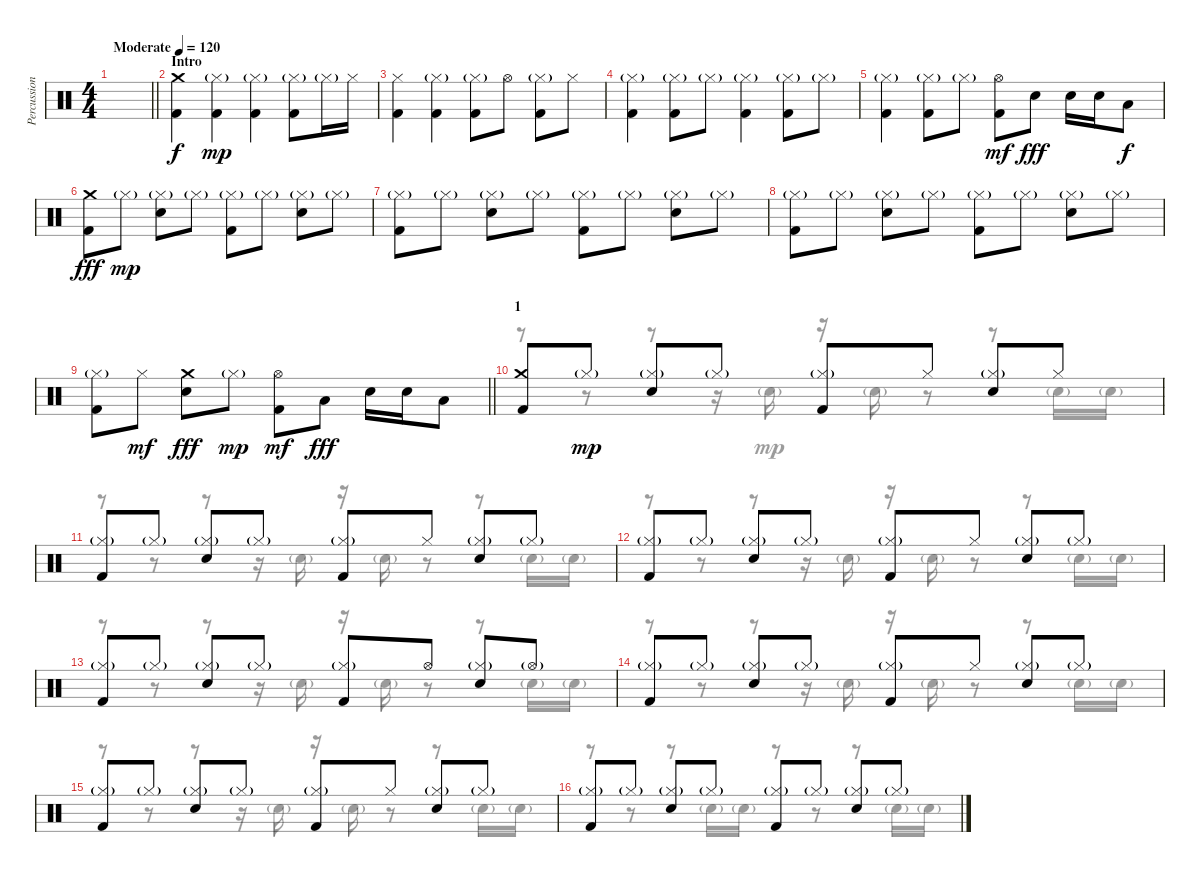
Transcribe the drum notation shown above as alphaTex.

\track ("Percussions" "Percussion") {instrument percussion}
\staff {score}
\articulation defaults
\voice
\ts (4 4)
\tempo (120 "Moderate")
\clef neutral
\barLineRight lightlight
\ks c
|
\section ("" "Intro")
("Kick (hit) 2" "Crash medium (hit)").4 ("Kick (hit) 2" "Hi-Hat (closed)"{g}).4{dy mp} ("Kick (hit) 2" "Hi-Hat (closed)"{g}).4 ("Kick (hit) 2" "Hi-Hat (closed)"{g}).8 "Hi-Hat (closed)"{g}.16 "Hi-Hat (closed)".16 |
("Kick (hit) 2" "Hi-Hat (closed)").4 ("Kick (hit) 2" "Hi-Hat (closed)"{g}).4 ("Kick (hit) 2" "Hi-Hat (closed)"{g}).8 "Hi-Hat (open)".8 ("Kick (hit) 2" "Hi-Hat (closed)"{g}).8 "Hi-Hat (closed)".8 |
("Kick (hit) 2" "Hi-Hat (closed)"{g}).4 ("Kick (hit) 2" "Hi-Hat (closed)"{g}).8 "Hi-Hat (closed)"{g}.8 ("Kick (hit) 2" "Hi-Hat (closed)"{g}).4 ("Kick (hit) 2" "Hi-Hat (closed)"{g}).8 "Hi-Hat (closed)"{g}.8 |
("Kick (hit) 2" "Hi-Hat (closed)"{g}).4 ("Kick (hit) 2" "Hi-Hat (closed)"{g}).8 "Hi-Hat (closed)"{g}.8 ("Kick (hit) 2" "Hi-Hat (open)").8{dy mf} "Electric Snare (hit)".8{dy fff} "Electric Snare (hit)".16 "Electric Snare (hit)".16 "Low Tom (hit)".8{dy f} |
("Kick (hit) 2" "Crash medium (hit)").8{dy fff} "Hi-Hat (closed)"{g}.8{dy mp} ("Electric Snare (hit)" "Hi-Hat (closed)"{g}).8 "Hi-Hat (closed)"{g}.8 ("Kick (hit) 2" "Hi-Hat (closed)"{g}).8 "Hi-Hat (closed)"{g}.8 ("Electric Snare (hit)" "Hi-Hat (closed)"{g}).8 "Hi-Hat (closed)"{g}.8 |
("Kick (hit) 2" "Hi-Hat (closed)"{g}).8 "Hi-Hat (closed)"{g}.8 ("Electric Snare (hit)" "Hi-Hat (closed)"{g}).8 "Hi-Hat (closed)"{g}.8 ("Kick (hit) 2" "Hi-Hat (closed)"{g}).8 "Hi-Hat (closed)"{g}.8 ("Electric Snare (hit)" "Hi-Hat (closed)"{g}).8 "Hi-Hat (closed)"{g}.8 |
("Kick (hit) 2" "Hi-Hat (closed)"{g}).8 "Hi-Hat (closed)"{g}.8 ("Electric Snare (hit)" "Hi-Hat (closed)"{g}).8 "Hi-Hat (closed)"{g}.8 ("Kick (hit) 2" "Hi-Hat (closed)"{g}).8 "Hi-Hat (closed)"{g}.8 ("Electric Snare (hit)" "Hi-Hat (closed)"{g}).8 "Hi-Hat (closed)"{g}.8 |
\barLineRight lightlight
("Kick (hit) 2" "Hi-Hat (closed)"{g}).8 "Hi-Hat (closed)".8{dy mf} ("Electric Snare (hit)" "Crash medium (hit)").8{dy fff} "Hi-Hat (closed)"{g}.8{dy mp} ("Kick (hit) 2" "Hi-Hat (open)").8{dy mf} "Low Tom (hit)".8{dy fff} "Electric Snare (hit)".16 "Electric Snare (hit)".16 "Low Tom (hit)".8 |
\section ("" "1")
("Kick (hit) 2" "Crash medium (hit)").8 "Hi-Hat (closed)"{g}.8{dy mp} ("Electric Snare (hit)" "Hi-Hat (closed)"{g}).8 "Hi-Hat (closed)"{g}.8 ("Kick (hit) 2" "Hi-Hat (closed)"{g}).8 "Hi-Hat (closed)".8 ("Electric Snare (hit)" "Hi-Hat (closed)"{g}).8 "Hi-Hat (closed)".8 |
("Kick (hit) 2" "Hi-Hat (closed)"{g}).8 "Hi-Hat (closed)"{g}.8 ("Electric Snare (hit)" "Hi-Hat (closed)"{g}).8 "Hi-Hat (closed)"{g}.8 ("Kick (hit) 2" "Hi-Hat (closed)"{g}).8 "Hi-Hat (closed)".8 ("Electric Snare (hit)" "Hi-Hat (closed)"{g}).8 "Hi-Hat (closed)"{g}.8 |
("Kick (hit) 2" "Hi-Hat (closed)"{g}).8 "Hi-Hat (closed)"{g}.8 ("Electric Snare (hit)" "Hi-Hat (closed)"{g}).8 "Hi-Hat (closed)"{g}.8 ("Kick (hit) 2" "Hi-Hat (closed)"{g}).8 "Hi-Hat (closed)".8 ("Electric Snare (hit)" "Hi-Hat (closed)"{g}).8 "Hi-Hat (closed)"{g}.8 |
("Kick (hit) 2" "Hi-Hat (closed)"{g}).8 "Hi-Hat (closed)"{g}.8 ("Electric Snare (hit)" "Hi-Hat (closed)"{g}).8 "Hi-Hat (closed)"{g}.8 ("Kick (hit) 2" "Hi-Hat (closed)"{g}).8 "Hi-Hat (open)".8 ("Electric Snare (hit)" "Hi-Hat (closed)"{g}).8 "Hi-Hat (open)"{g}.8 |
("Kick (hit) 2" "Hi-Hat (closed)"{g}).8 "Hi-Hat (closed)"{g}.8 ("Electric Snare (hit)" "Hi-Hat (closed)"{g}).8 "Hi-Hat (closed)"{g}.8 ("Kick (hit) 2" "Hi-Hat (closed)"{g}).8 "Hi-Hat (closed)".8 ("Electric Snare (hit)" "Hi-Hat (closed)"{g}).8 "Hi-Hat (closed)"{g}.8 |
("Kick (hit) 2" "Hi-Hat (closed)"{g}).8 "Hi-Hat (closed)"{g}.8 ("Electric Snare (hit)" "Hi-Hat (closed)"{g}).8 "Hi-Hat (closed)"{g}.8 ("Kick (hit) 2" "Hi-Hat (closed)"{g}).8 "Hi-Hat (closed)".8 ("Electric Snare (hit)" "Hi-Hat (closed)"{g}).8 "Hi-Hat (closed)"{g}.8 |
("Kick (hit) 2" "Hi-Hat (closed)"{g}).8 "Hi-Hat (closed)"{g}.8 ("Electric Snare (hit)" "Hi-Hat (closed)"{g}).8 "Hi-Hat (closed)"{g}.8 ("Kick (hit) 2" "Hi-Hat (closed)"{g}).8 "Hi-Hat (closed)"{g}.8 ("Electric Snare (hit)" "Hi-Hat (closed)"{g}).8 "Hi-Hat (closed)"{g}.8
\voice
\clef neutral
\ottava regular
\simile none
\barLineRight lightlight
\ks c
|
|
|
|
|
|
|
|
\barLineRight lightlight
|
r.8 r.8 r.8 r.16 "Electric Snare (hit)"{g}.16 r.16 "Electric Snare (hit)"{g}.16 r.8 r.8 "Electric Snare (hit)"{g}.16 "Electric Snare (hit)"{g}.16 |
r.8 r.8 r.8 r.16 "Electric Snare (hit)"{g}.16 r.16 "Electric Snare (hit)"{g}.16 r.8 r.8 "Electric Snare (hit)"{g}.16 "Electric Snare (hit)"{g}.16 |
r.8 r.8 r.8 r.16 "Electric Snare (hit)"{g}.16 r.16 "Electric Snare (hit)"{g}.16 r.8 r.8 "Electric Snare (hit)"{g}.16 "Electric Snare (hit)"{g}.16 |
r.8 r.8 r.8 r.16 "Electric Snare (hit)"{g}.16 r.16 "Electric Snare (hit)"{g}.16 r.8 r.8 "Electric Snare (hit)"{g}.16 "Electric Snare (hit)"{g}.16 |
r.8 r.8 r.8 r.16 "Electric Snare (hit)"{g}.16 r.16 "Electric Snare (hit)"{g}.16 r.8 r.8 "Electric Snare (hit)"{g}.16 "Electric Snare (hit)"{g}.16 |
r.8 r.8 r.8 r.16 "Electric Snare (hit)"{g}.16 r.16 "Electric Snare (hit)"{g}.16 r.8 r.8 "Electric Snare (hit)"{g}.16 "Electric Snare (hit)"{g}.16 |
r.8 r.8 r.8 "Electric Snare (hit)"{g}.16 "Electric Snare (hit)"{g}.16 r.8 r.8 r.8 "Electric Snare (hit)"{g}.16 "Electric Snare (hit)"{g}.16
